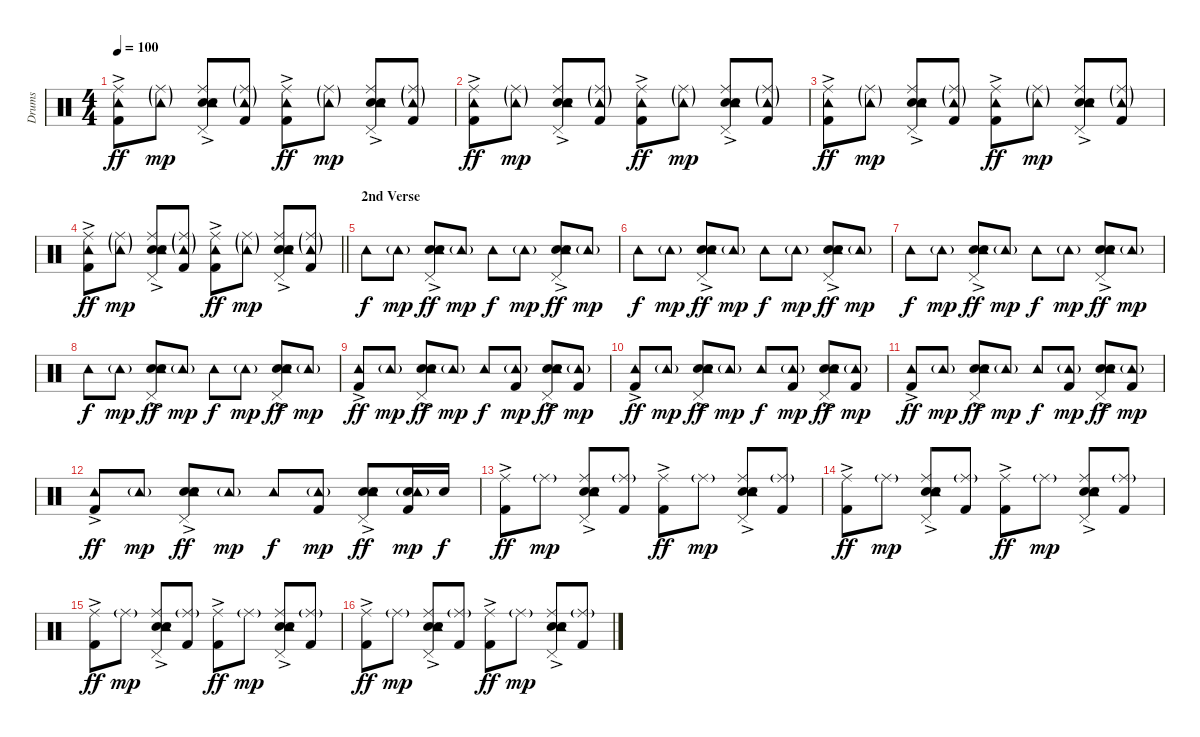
\track ("Drums" "Drums") {instrument percussion}
\staff {score}
\articulation defaults
\ts (4 4)
\tempo 100
\clef neutral
\ks c
("Kick (hit) 2"{ac} "Tambourine (hit)" "Ride (middle)").8{dy ff} ("Tambourine (hit)"{g} "Ride (middle)"{g}).8{dy mp} ("Electric Snare (hit)"{ac} "Snare (hit) 2" "Pedal Hi-Hat (hit)" "Tambourine (hit)" "Ride (middle)").8 ("Kick (hit) 2" "Tambourine (hit)"{g} "Ride (middle)"{g}).8 ("Kick (hit) 2"{ac} "Tambourine (hit)" "Ride (middle)").8{dy ff} ("Tambourine (hit)"{g} "Ride (middle)"{g}).8{dy mp} ("Electric Snare (hit)"{ac} "Snare (hit) 2" "Pedal Hi-Hat (hit)" "Tambourine (hit)" "Ride (middle)").8 ("Kick (hit) 2" "Tambourine (hit)"{g} "Ride (middle)"{g}).8 |
("Kick (hit) 2"{ac} "Tambourine (hit)" "Ride (middle)").8{dy ff} ("Tambourine (hit)"{g} "Ride (middle)"{g}).8{dy mp} ("Electric Snare (hit)"{ac} "Snare (hit) 2" "Pedal Hi-Hat (hit)" "Tambourine (hit)" "Ride (middle)").8 ("Kick (hit) 2" "Tambourine (hit)"{g} "Ride (middle)"{g}).8 ("Kick (hit) 2"{ac} "Tambourine (hit)" "Ride (middle)").8{dy ff} ("Tambourine (hit)"{g} "Ride (middle)"{g}).8{dy mp} ("Electric Snare (hit)"{ac} "Snare (hit) 2" "Pedal Hi-Hat (hit)" "Tambourine (hit)" "Ride (middle)").8 ("Kick (hit) 2" "Tambourine (hit)"{g} "Ride (middle)"{g}).8 |
("Kick (hit) 2"{ac} "Tambourine (hit)" "Ride (middle)").8{dy ff} ("Tambourine (hit)"{g} "Ride (middle)"{g}).8{dy mp} ("Electric Snare (hit)"{ac} "Snare (hit) 2" "Pedal Hi-Hat (hit)" "Tambourine (hit)" "Ride (middle)").8 ("Kick (hit) 2" "Tambourine (hit)"{g} "Ride (middle)"{g}).8 ("Kick (hit) 2"{ac} "Tambourine (hit)" "Ride (middle)").8{dy ff} ("Tambourine (hit)"{g} "Ride (middle)"{g}).8{dy mp} ("Electric Snare (hit)"{ac} "Snare (hit) 2" "Pedal Hi-Hat (hit)" "Tambourine (hit)" "Ride (middle)").8 ("Kick (hit) 2" "Tambourine (hit)"{g} "Ride (middle)"{g}).8 |
\barLineRight lightlight
("Kick (hit) 2"{ac} "Tambourine (hit)" "Ride (middle)").8{dy ff} ("Tambourine (hit)"{g} "Ride (middle)"{g}).8{dy mp} ("Electric Snare (hit)"{ac} "Snare (hit) 2" "Pedal Hi-Hat (hit)" "Tambourine (hit)" "Ride (middle)").8 ("Kick (hit) 2" "Tambourine (hit)"{g} "Ride (middle)"{g}).8 ("Kick (hit) 2"{ac} "Tambourine (hit)" "Ride (middle)").8{dy ff} ("Tambourine (hit)"{g} "Ride (middle)"{g}).8{dy mp} ("Electric Snare (hit)"{ac} "Snare (hit) 2" "Pedal Hi-Hat (hit)" "Tambourine (hit)" "Ride (middle)").8 ("Kick (hit) 2" "Tambourine (hit)"{g} "Ride (middle)"{g}).8 |
\section ("" "2nd Verse")
"Tambourine (hit)".8{dy f} "Tambourine (hit)"{g}.8{dy mp} ("Electric Snare (hit)"{ac} "Snare (hit) 2" "Pedal Hi-Hat (hit)" "Tambourine (hit)").8{dy ff} "Tambourine (hit)"{g}.8{dy mp} "Tambourine (hit)".8{dy f} "Tambourine (hit)"{g}.8{dy mp} ("Electric Snare (hit)"{ac} "Snare (hit) 2" "Pedal Hi-Hat (hit)" "Tambourine (hit)").8{dy ff} "Tambourine (hit)"{g}.8{dy mp} |
"Tambourine (hit)".8{dy f} "Tambourine (hit)"{g}.8{dy mp} ("Electric Snare (hit)"{ac} "Snare (hit) 2" "Pedal Hi-Hat (hit)" "Tambourine (hit)").8{dy ff} "Tambourine (hit)"{g}.8{dy mp} "Tambourine (hit)".8{dy f} "Tambourine (hit)"{g}.8{dy mp} ("Electric Snare (hit)"{ac} "Snare (hit) 2" "Pedal Hi-Hat (hit)" "Tambourine (hit)").8{dy ff} "Tambourine (hit)"{g}.8{dy mp} |
"Tambourine (hit)".8{dy f} "Tambourine (hit)"{g}.8{dy mp} ("Electric Snare (hit)"{ac} "Snare (hit) 2" "Pedal Hi-Hat (hit)" "Tambourine (hit)").8{dy ff} "Tambourine (hit)"{g}.8{dy mp} "Tambourine (hit)".8{dy f} "Tambourine (hit)"{g}.8{dy mp} ("Electric Snare (hit)"{ac} "Snare (hit) 2" "Pedal Hi-Hat (hit)" "Tambourine (hit)").8{dy ff} "Tambourine (hit)"{g}.8{dy mp} |
"Tambourine (hit)".8{dy f} "Tambourine (hit)"{g}.8{dy mp} ("Electric Snare (hit)"{ac} "Snare (hit) 2" "Pedal Hi-Hat (hit)" "Tambourine (hit)").8{dy ff} "Tambourine (hit)"{g}.8{dy mp} "Tambourine (hit)".8{dy f} "Tambourine (hit)"{g}.8{dy mp} ("Electric Snare (hit)"{ac} "Snare (hit) 2" "Pedal Hi-Hat (hit)" "Tambourine (hit)").8{dy ff} "Tambourine (hit)"{g}.8{dy mp} |
("Kick (hit) 2"{ac} "Tambourine (hit)").8{dy ff} "Tambourine (hit)"{g}.8{dy mp} ("Electric Snare (hit)"{ac} "Snare (hit) 2" "Pedal Hi-Hat (hit)" "Tambourine (hit)").8{dy ff} "Tambourine (hit)"{g}.8{dy mp} "Tambourine (hit)".8{dy f} ("Kick (hit) 2" "Tambourine (hit)"{g}).8{dy mp} ("Electric Snare (hit)"{ac} "Snare (hit) 2" "Pedal Hi-Hat (hit)" "Tambourine (hit)").8{dy ff} ("Kick (hit) 2" "Tambourine (hit)"{g}).8{dy mp} |
("Kick (hit) 2"{ac} "Tambourine (hit)").8{dy ff} "Tambourine (hit)"{g}.8{dy mp} ("Electric Snare (hit)"{ac} "Snare (hit) 2" "Pedal Hi-Hat (hit)" "Tambourine (hit)").8{dy ff} "Tambourine (hit)"{g}.8{dy mp} "Tambourine (hit)".8{dy f} ("Kick (hit) 2" "Tambourine (hit)"{g}).8{dy mp} ("Electric Snare (hit)"{ac} "Snare (hit) 2" "Pedal Hi-Hat (hit)" "Tambourine (hit)").8{dy ff} ("Kick (hit) 2" "Tambourine (hit)"{g}).8{dy mp} |
("Kick (hit) 2"{ac} "Tambourine (hit)").8{dy ff} "Tambourine (hit)"{g}.8{dy mp} ("Electric Snare (hit)"{ac} "Snare (hit) 2" "Pedal Hi-Hat (hit)" "Tambourine (hit)").8{dy ff} "Tambourine (hit)"{g}.8{dy mp} "Tambourine (hit)".8{dy f} ("Kick (hit) 2" "Tambourine (hit)"{g}).8{dy mp} ("Electric Snare (hit)"{ac} "Snare (hit) 2" "Pedal Hi-Hat (hit)" "Tambourine (hit)").8{dy ff} ("Kick (hit) 2" "Tambourine (hit)"{g}).8{dy mp} |
("Kick (hit) 2"{ac} "Tambourine (hit)").8{dy ff} "Tambourine (hit)"{g}.8{dy mp} ("Electric Snare (hit)"{ac} "Snare (hit) 2" "Pedal Hi-Hat (hit)" "Tambourine (hit)").8{dy ff} "Tambourine (hit)"{g}.8{dy mp} "Tambourine (hit)".8{dy f} ("Kick (hit) 2" "Tambourine (hit)"{g}).8{dy mp} ("Electric Snare (hit)"{ac} "Snare (hit) 2" "Pedal Hi-Hat (hit)" "Tambourine (hit)").8{dy ff} ("Kick (hit) 2" "Snare (hit) 2" "Tambourine (hit)"{g}).16{dy mp} "Snare (hit) 2".16{dy f} |
("Kick (hit) 2"{ac} "Ride (middle)").8{dy ff} "Ride (middle)"{g}.8{dy mp} ("Electric Snare (hit)"{ac} "Snare (hit) 2" "Pedal Hi-Hat (hit)" "Tambourine (hit)" "Ride (middle)").8 ("Kick (hit) 2" "Ride (middle)"{g}).8 ("Kick (hit) 2"{ac} "Ride (middle)").8{dy ff} "Ride (middle)"{g}.8{dy mp} ("Electric Snare (hit)"{ac} "Snare (hit) 2" "Pedal Hi-Hat (hit)" "Tambourine (hit)" "Ride (middle)").8 ("Kick (hit) 2" "Ride (middle)"{g}).8 |
("Kick (hit) 2"{ac} "Ride (middle)").8{dy ff} "Ride (middle)"{g}.8{dy mp} ("Electric Snare (hit)"{ac} "Snare (hit) 2" "Pedal Hi-Hat (hit)" "Tambourine (hit)" "Ride (middle)").8 ("Kick (hit) 2" "Ride (middle)"{g}).8 ("Kick (hit) 2"{ac} "Ride (middle)").8{dy ff} "Ride (middle)"{g}.8{dy mp} ("Electric Snare (hit)"{ac} "Snare (hit) 2" "Pedal Hi-Hat (hit)" "Tambourine (hit)" "Ride (middle)").8 ("Kick (hit) 2" "Ride (middle)"{g}).8 |
("Kick (hit) 2"{ac} "Ride (middle)").8{dy ff} "Ride (middle)"{g}.8{dy mp} ("Electric Snare (hit)"{ac} "Snare (hit) 2" "Pedal Hi-Hat (hit)" "Tambourine (hit)" "Ride (middle)").8 ("Kick (hit) 2" "Ride (middle)"{g}).8 ("Kick (hit) 2"{ac} "Ride (middle)").8{dy ff} "Ride (middle)"{g}.8{dy mp} ("Electric Snare (hit)"{ac} "Snare (hit) 2" "Pedal Hi-Hat (hit)" "Tambourine (hit)" "Ride (middle)").8 ("Kick (hit) 2" "Ride (middle)"{g}).8 |
("Kick (hit) 2"{ac} "Ride (middle)").8{dy ff} "Ride (middle)"{g}.8{dy mp} ("Electric Snare (hit)"{ac} "Snare (hit) 2" "Pedal Hi-Hat (hit)" "Tambourine (hit)" "Ride (middle)").8 ("Kick (hit) 2" "Ride (middle)"{g}).8 ("Kick (hit) 2"{ac} "Ride (middle)").8{dy ff} "Ride (middle)"{g}.8{dy mp} ("Electric Snare (hit)"{ac} "Snare (hit) 2" "Pedal Hi-Hat (hit)" "Tambourine (hit)" "Ride (middle)").8 ("Kick (hit) 2" "Ride (middle)"{g}).8
